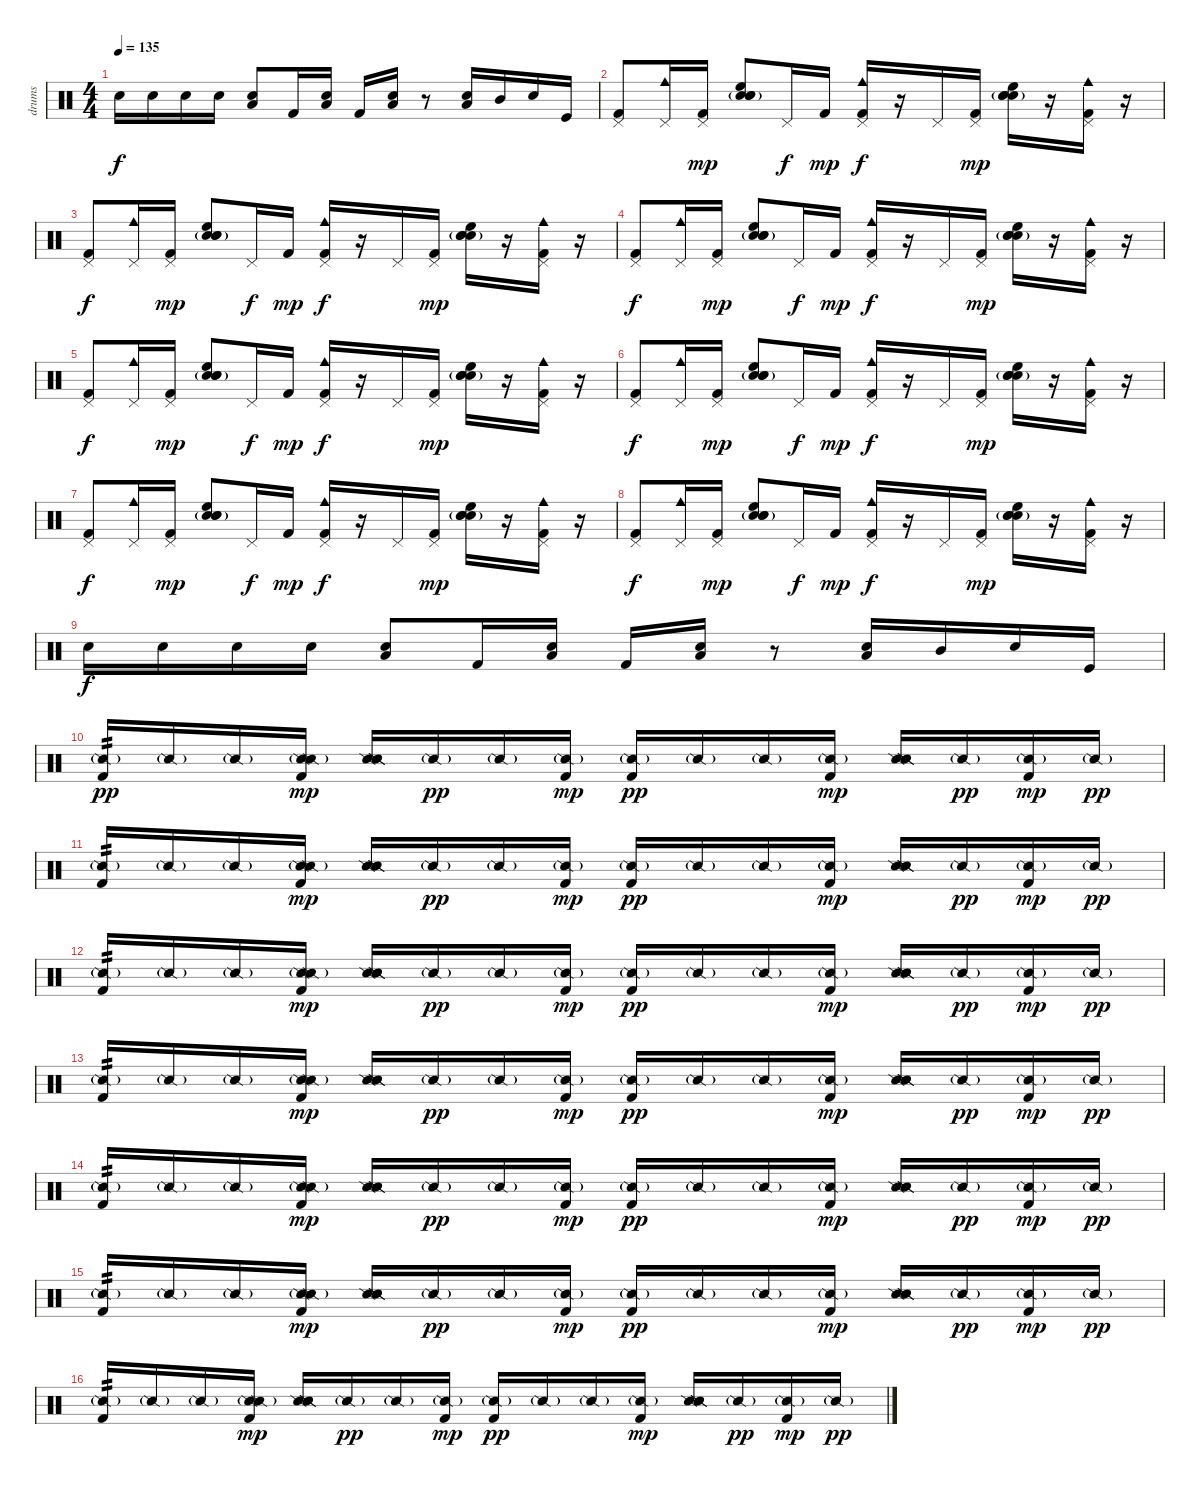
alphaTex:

\track ("drums" "drums") {instrument percussion}
\staff {score}
\articulation defaults
\ts (4 4)
\tempo 135
\clef neutral
\ks c "Snare (hit) 2".16{dy f} "Snare (hit) 2".16 "Snare (hit) 2".16 "Snare (hit) 2".16
("Snare (hit) 2" "Low Tom (hit)").8{bd 60} "Kick (hit) 2".16 ("Snare (hit) 2" "Low Tom (hit)").16{bd 60} "Kick (hit) 2".16 ("Snare (hit) 2" "Low Tom (hit)").16{bd 60} r.8 ("Low Tom (hit)" "Snare (hit) 2").16{bu 60} "Mid Tom (hit)".16 "Snare (hit) 2".16 "Kick (hit)".16 |
("Pedal Hi-Hat (hit)" "Kick (hit) 2").8 ("Cowbell medium (hit)" "Pedal Hi-Hat (hit)").16 ("Pedal Hi-Hat (hit)" "Kick (hit) 2").16{dy mp} ("Snare (hit) 2"{g} "Hand Clap (hit)"{g} "High Floor Tom (hit)" "Snare (hit) 2").8 "Pedal Hi-Hat (hit)".16{dy f} "Kick (hit) 2".16{dy mp} ("Cowbell medium (hit)" "Pedal Hi-Hat (hit)" "Kick (hit) 2").16{dy f} r.16 "Pedal Hi-Hat (hit)".16 ("Pedal Hi-Hat (hit)" "Kick (hit) 2").16{dy mp} ("Snare (hit) 2"{g} "Hand Clap (hit)"{g} "High Floor Tom (hit)" "Snare (hit) 2").16 r.16 ("Cowbell medium (hit)" "Pedal Hi-Hat (hit)" "Kick (hit) 2").16 r.16 |
("Pedal Hi-Hat (hit)" "Kick (hit) 2").8{dy f} ("Cowbell medium (hit)" "Pedal Hi-Hat (hit)").16 ("Pedal Hi-Hat (hit)" "Kick (hit) 2").16{dy mp} ("Snare (hit) 2"{g} "Hand Clap (hit)"{g} "High Floor Tom (hit)" "Snare (hit) 2").8 "Pedal Hi-Hat (hit)".16{dy f} "Kick (hit) 2".16{dy mp} ("Cowbell medium (hit)" "Pedal Hi-Hat (hit)" "Kick (hit) 2").16{dy f} r.16 "Pedal Hi-Hat (hit)".16 ("Pedal Hi-Hat (hit)" "Kick (hit) 2").16{dy mp} ("Snare (hit) 2"{g} "Hand Clap (hit)"{g} "High Floor Tom (hit)" "Snare (hit) 2").16 r.16 ("Cowbell medium (hit)" "Pedal Hi-Hat (hit)" "Kick (hit) 2").16 r.16 |
("Pedal Hi-Hat (hit)" "Kick (hit) 2").8{dy f} ("Cowbell medium (hit)" "Pedal Hi-Hat (hit)").16 ("Pedal Hi-Hat (hit)" "Kick (hit) 2").16{dy mp} ("Snare (hit) 2"{g} "Hand Clap (hit)"{g} "High Floor Tom (hit)" "Snare (hit) 2").8 "Pedal Hi-Hat (hit)".16{dy f} "Kick (hit) 2".16{dy mp} ("Cowbell medium (hit)" "Pedal Hi-Hat (hit)" "Kick (hit) 2").16{dy f} r.16 "Pedal Hi-Hat (hit)".16 ("Pedal Hi-Hat (hit)" "Kick (hit) 2").16{dy mp} ("Snare (hit) 2"{g} "Hand Clap (hit)"{g} "High Floor Tom (hit)" "Snare (hit) 2").16 r.16 ("Cowbell medium (hit)" "Pedal Hi-Hat (hit)" "Kick (hit) 2").16 r.16 |
("Pedal Hi-Hat (hit)" "Kick (hit) 2").8{dy f} ("Cowbell medium (hit)" "Pedal Hi-Hat (hit)").16 ("Pedal Hi-Hat (hit)" "Kick (hit) 2").16{dy mp} ("Snare (hit) 2"{g} "Hand Clap (hit)"{g} "High Floor Tom (hit)" "Snare (hit) 2").8 "Pedal Hi-Hat (hit)".16{dy f} "Kick (hit) 2".16{dy mp} ("Cowbell medium (hit)" "Pedal Hi-Hat (hit)" "Kick (hit) 2").16{dy f} r.16 "Pedal Hi-Hat (hit)".16 ("Pedal Hi-Hat (hit)" "Kick (hit) 2").16{dy mp} ("Snare (hit) 2"{g} "Hand Clap (hit)"{g} "High Floor Tom (hit)" "Snare (hit) 2").16 r.16 ("Cowbell medium (hit)" "Pedal Hi-Hat (hit)" "Kick (hit) 2").16 r.16 |
("Pedal Hi-Hat (hit)" "Kick (hit) 2").8{dy f} ("Cowbell medium (hit)" "Pedal Hi-Hat (hit)").16 ("Pedal Hi-Hat (hit)" "Kick (hit) 2").16{dy mp} ("Snare (hit) 2"{g} "Hand Clap (hit)"{g} "High Floor Tom (hit)" "Snare (hit) 2").8 "Pedal Hi-Hat (hit)".16{dy f} "Kick (hit) 2".16{dy mp} ("Cowbell medium (hit)" "Pedal Hi-Hat (hit)" "Kick (hit) 2").16{dy f} r.16 "Pedal Hi-Hat (hit)".16 ("Pedal Hi-Hat (hit)" "Kick (hit) 2").16{dy mp} ("Snare (hit) 2"{g} "Hand Clap (hit)"{g} "High Floor Tom (hit)" "Snare (hit) 2").16 r.16 ("Cowbell medium (hit)" "Pedal Hi-Hat (hit)" "Kick (hit) 2").16 r.16 |
("Pedal Hi-Hat (hit)" "Kick (hit) 2").8{dy f} ("Cowbell medium (hit)" "Pedal Hi-Hat (hit)").16 ("Pedal Hi-Hat (hit)" "Kick (hit) 2").16{dy mp} ("Snare (hit) 2"{g} "Hand Clap (hit)"{g} "High Floor Tom (hit)" "Snare (hit) 2").8 "Pedal Hi-Hat (hit)".16{dy f} "Kick (hit) 2".16{dy mp} ("Cowbell medium (hit)" "Pedal Hi-Hat (hit)" "Kick (hit) 2").16{dy f} r.16 "Pedal Hi-Hat (hit)".16 ("Pedal Hi-Hat (hit)" "Kick (hit) 2").16{dy mp} ("Snare (hit) 2"{g} "Hand Clap (hit)"{g} "High Floor Tom (hit)" "Snare (hit) 2").16 r.16 ("Cowbell medium (hit)" "Pedal Hi-Hat (hit)" "Kick (hit) 2").16 r.16 |
("Pedal Hi-Hat (hit)" "Kick (hit) 2").8{dy f} ("Cowbell medium (hit)" "Pedal Hi-Hat (hit)").16 ("Pedal Hi-Hat (hit)" "Kick (hit) 2").16{dy mp} ("Snare (hit) 2"{g} "Hand Clap (hit)"{g} "High Floor Tom (hit)" "Snare (hit) 2").8 "Pedal Hi-Hat (hit)".16{dy f} "Kick (hit) 2".16{dy mp} ("Cowbell medium (hit)" "Pedal Hi-Hat (hit)" "Kick (hit) 2").16{dy f} r.16 "Pedal Hi-Hat (hit)".16 ("Pedal Hi-Hat (hit)" "Kick (hit) 2").16{dy mp} ("Snare (hit) 2"{g} "Hand Clap (hit)"{g} "High Floor Tom (hit)" "Snare (hit) 2").16 r.16 ("Cowbell medium (hit)" "Pedal Hi-Hat (hit)" "Kick (hit) 2").16 r.16 |
"Snare (hit) 2".16{dy f} "Snare (hit) 2".16 "Snare (hit) 2".16 "Snare (hit) 2".16 ("Snare (hit) 2" "Low Tom (hit)").8{bd 60} "Kick (hit) 2".16 ("Snare (hit) 2" "Low Tom (hit)").16{bd 60} "Kick (hit) 2".16 ("Snare (hit) 2" "Low Tom (hit)").16{bd 60} r.8 ("Low Tom (hit)" "Snare (hit) 2").16{bu 60} "Mid Tom (hit)".16 "Snare (hit) 2".16 "Kick (hit)".16 |
("Snare (side stick) 2"{g} "Kick (hit) 2").16{tp 2 dy pp} "Snare (side stick) 2"{g}.16 "Snare (side stick) 2"{g}.16 ("Snare (side stick) 2"{g} "Snare (side stick) 2"{g} "Kick (hit) 2").16{dy mp} ("Snare (side stick) 2" "Snare (side stick) 2" "Snare (side stick) 2").16 "Snare (side stick) 2"{g}.16{dy pp} "Snare (side stick) 2"{g}.16 ("Snare (side stick) 2"{g} "Kick (hit) 2").16{dy mp} ("Snare (side stick) 2"{g} "Kick (hit) 2").16{dy pp} "Snare (side stick) 2"{g}.16 "Snare (side stick) 2"{g}.16 ("Snare (side stick) 2"{g} "Kick (hit) 2").16{dy mp} ("Snare (side stick) 2" "Snare (side stick) 2" "Snare (side stick) 2").16 "Snare (side stick) 2"{g}.16{dy pp} ("Snare (side stick) 2"{g} "Kick (hit) 2").16{dy mp} "Snare (side stick) 2"{g}.16{dy pp} |
("Snare (side stick) 2"{g} "Kick (hit) 2").16{tp 2} "Snare (side stick) 2"{g}.16 "Snare (side stick) 2"{g}.16 ("Snare (side stick) 2"{g} "Snare (side stick) 2"{g} "Kick (hit) 2").16{dy mp} ("Snare (side stick) 2" "Snare (side stick) 2" "Snare (side stick) 2").16 "Snare (side stick) 2"{g}.16{dy pp} "Snare (side stick) 2"{g}.16 ("Snare (side stick) 2"{g} "Kick (hit) 2").16{dy mp} ("Snare (side stick) 2"{g} "Kick (hit) 2").16{dy pp} "Snare (side stick) 2"{g}.16 "Snare (side stick) 2"{g}.16 ("Snare (side stick) 2"{g} "Kick (hit) 2").16{dy mp} ("Snare (side stick) 2" "Snare (side stick) 2" "Snare (side stick) 2").16 "Snare (side stick) 2"{g}.16{dy pp} ("Snare (side stick) 2"{g} "Kick (hit) 2").16{dy mp} "Snare (side stick) 2"{g}.16{dy pp} |
("Snare (side stick) 2"{g} "Kick (hit) 2").16{tp 2} "Snare (side stick) 2"{g}.16 "Snare (side stick) 2"{g}.16 ("Snare (side stick) 2"{g} "Snare (side stick) 2"{g} "Kick (hit) 2").16{dy mp} ("Snare (side stick) 2" "Snare (side stick) 2" "Snare (side stick) 2").16 "Snare (side stick) 2"{g}.16{dy pp} "Snare (side stick) 2"{g}.16 ("Snare (side stick) 2"{g} "Kick (hit) 2").16{dy mp} ("Snare (side stick) 2"{g} "Kick (hit) 2").16{dy pp} "Snare (side stick) 2"{g}.16 "Snare (side stick) 2"{g}.16 ("Snare (side stick) 2"{g} "Kick (hit) 2").16{dy mp} ("Snare (side stick) 2" "Snare (side stick) 2" "Snare (side stick) 2").16 "Snare (side stick) 2"{g}.16{dy pp} ("Snare (side stick) 2"{g} "Kick (hit) 2").16{dy mp} "Snare (side stick) 2"{g}.16{dy pp} |
("Snare (side stick) 2"{g} "Kick (hit) 2").16{tp 2} "Snare (side stick) 2"{g}.16 "Snare (side stick) 2"{g}.16 ("Snare (side stick) 2"{g} "Snare (side stick) 2"{g} "Kick (hit) 2").16{dy mp} ("Snare (side stick) 2" "Snare (side stick) 2" "Snare (side stick) 2").16 "Snare (side stick) 2"{g}.16{dy pp} "Snare (side stick) 2"{g}.16 ("Snare (side stick) 2"{g} "Kick (hit) 2").16{dy mp} ("Snare (side stick) 2"{g} "Kick (hit) 2").16{dy pp} "Snare (side stick) 2"{g}.16 "Snare (side stick) 2"{g}.16 ("Snare (side stick) 2"{g} "Kick (hit) 2").16{dy mp} ("Snare (side stick) 2" "Snare (side stick) 2" "Snare (side stick) 2").16 "Snare (side stick) 2"{g}.16{dy pp} ("Snare (side stick) 2"{g} "Kick (hit) 2").16{dy mp} "Snare (side stick) 2"{g}.16{dy pp} |
("Snare (side stick) 2"{g} "Kick (hit) 2").16{tp 2} "Snare (side stick) 2"{g}.16 "Snare (side stick) 2"{g}.16 ("Snare (side stick) 2"{g} "Snare (side stick) 2"{g} "Kick (hit) 2").16{dy mp} ("Snare (side stick) 2" "Snare (side stick) 2" "Snare (side stick) 2").16 "Snare (side stick) 2"{g}.16{dy pp} "Snare (side stick) 2"{g}.16 ("Snare (side stick) 2"{g} "Kick (hit) 2").16{dy mp} ("Snare (side stick) 2"{g} "Kick (hit) 2").16{dy pp} "Snare (side stick) 2"{g}.16 "Snare (side stick) 2"{g}.16 ("Snare (side stick) 2"{g} "Kick (hit) 2").16{dy mp} ("Snare (side stick) 2" "Snare (side stick) 2" "Snare (side stick) 2").16 "Snare (side stick) 2"{g}.16{dy pp} ("Snare (side stick) 2"{g} "Kick (hit) 2").16{dy mp} "Snare (side stick) 2"{g}.16{dy pp} |
("Snare (side stick) 2"{g} "Kick (hit) 2").16{tp 2} "Snare (side stick) 2"{g}.16 "Snare (side stick) 2"{g}.16 ("Snare (side stick) 2"{g} "Snare (side stick) 2"{g} "Kick (hit) 2").16{dy mp} ("Snare (side stick) 2" "Snare (side stick) 2" "Snare (side stick) 2").16 "Snare (side stick) 2"{g}.16{dy pp} "Snare (side stick) 2"{g}.16 ("Snare (side stick) 2"{g} "Kick (hit) 2").16{dy mp} ("Snare (side stick) 2"{g} "Kick (hit) 2").16{dy pp} "Snare (side stick) 2"{g}.16 "Snare (side stick) 2"{g}.16 ("Snare (side stick) 2"{g} "Kick (hit) 2").16{dy mp} ("Snare (side stick) 2" "Snare (side stick) 2" "Snare (side stick) 2").16 "Snare (side stick) 2"{g}.16{dy pp} ("Snare (side stick) 2"{g} "Kick (hit) 2").16{dy mp} "Snare (side stick) 2"{g}.16{dy pp} |
("Snare (side stick) 2"{g} "Kick (hit) 2").16{tp 2} "Snare (side stick) 2"{g}.16 "Snare (side stick) 2"{g}.16 ("Snare (side stick) 2"{g} "Snare (side stick) 2"{g} "Kick (hit) 2").16{dy mp} ("Snare (side stick) 2" "Snare (side stick) 2" "Snare (side stick) 2").16 "Snare (side stick) 2"{g}.16{dy pp} "Snare (side stick) 2"{g}.16 ("Snare (side stick) 2"{g} "Kick (hit) 2").16{dy mp} ("Snare (side stick) 2"{g} "Kick (hit) 2").16{dy pp} "Snare (side stick) 2"{g}.16 "Snare (side stick) 2"{g}.16 ("Snare (side stick) 2"{g} "Kick (hit) 2").16{dy mp} ("Snare (side stick) 2" "Snare (side stick) 2" "Snare (side stick) 2").16 "Snare (side stick) 2"{g}.16{dy pp} ("Snare (side stick) 2"{g} "Kick (hit) 2").16{dy mp} "Snare (side stick) 2"{g}.16{dy pp}
